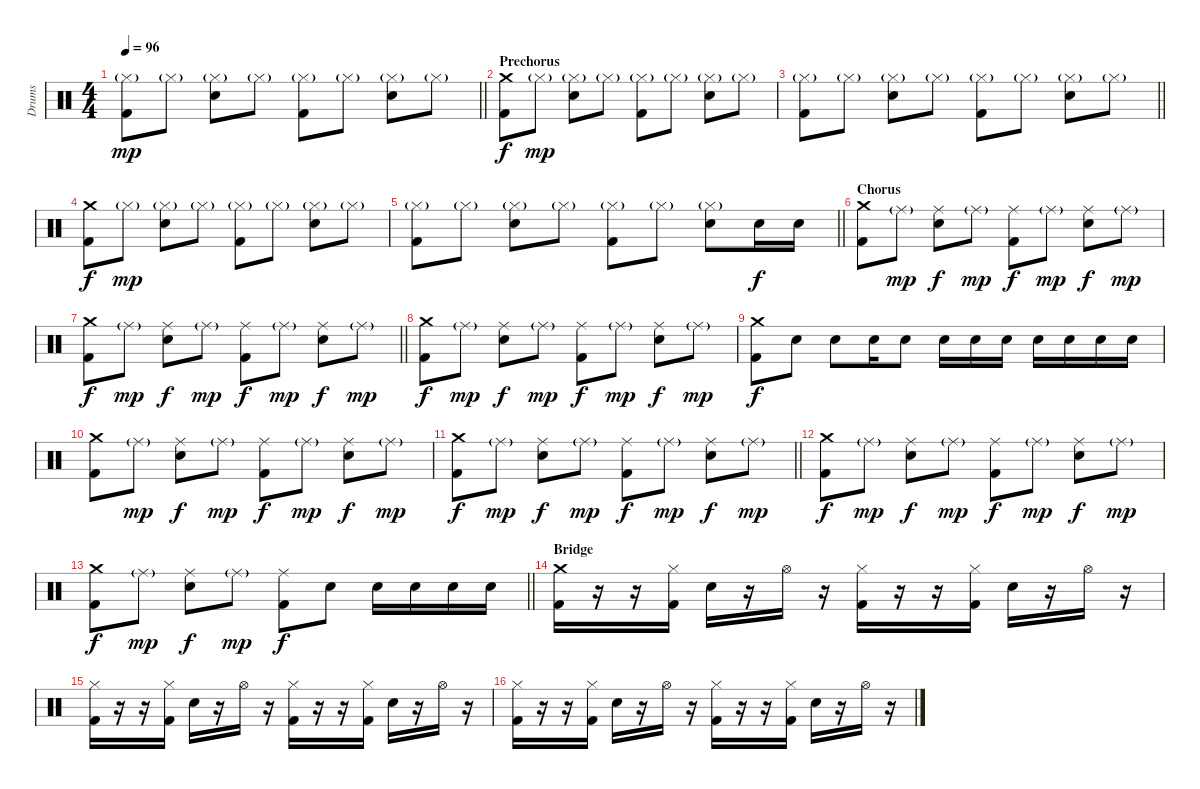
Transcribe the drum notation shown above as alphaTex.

\track ("Drums" "Drums") {instrument percussion}
\staff {score}
\articulation defaults
\ts (4 4)
\tempo 96
\clef neutral
\barLineRight lightlight
\ks c
("Hi-Hat (closed)"{g} "Kick (hit) 2").8{dy mp} "Hi-Hat (closed)"{g}.8 ("Hi-Hat (closed)"{g} "Snare (hit) 2").8 "Hi-Hat (closed)"{g}.8 ("Hi-Hat (closed)"{g} "Kick (hit) 2").8 "Hi-Hat (closed)"{g}.8 ("Hi-Hat (closed)"{g} "Snare (hit) 2").8 "Hi-Hat (closed)"{g}.8 |
\section ("" "Prechorus")
("Crash medium (hit)" "Kick (hit) 2").8{dy f} "Hi-Hat (closed)"{g}.8{dy mp} ("Hi-Hat (closed)"{g} "Snare (hit) 2").8 "Hi-Hat (closed)"{g}.8 ("Hi-Hat (closed)"{g} "Kick (hit) 2").8 "Hi-Hat (closed)"{g}.8 ("Hi-Hat (closed)"{g} "Snare (hit) 2").8 "Hi-Hat (closed)"{g}.8 |
\barLineRight lightlight
("Hi-Hat (closed)"{g} "Kick (hit) 2").8 "Hi-Hat (closed)"{g}.8 ("Hi-Hat (closed)"{g} "Snare (hit) 2").8 "Hi-Hat (closed)"{g}.8 ("Hi-Hat (closed)"{g} "Kick (hit) 2").8 "Hi-Hat (closed)"{g}.8 ("Hi-Hat (closed)"{g} "Snare (hit) 2").8 "Hi-Hat (closed)"{g}.8 |
("Crash medium (hit)" "Kick (hit) 2").8{dy f} "Hi-Hat (closed)"{g}.8{dy mp} ("Hi-Hat (closed)"{g} "Snare (hit) 2").8 "Hi-Hat (closed)"{g}.8 ("Hi-Hat (closed)"{g} "Kick (hit) 2").8 "Hi-Hat (closed)"{g}.8 ("Hi-Hat (closed)"{g} "Snare (hit) 2").8 "Hi-Hat (closed)"{g}.8 |
\barLineRight lightlight
("Hi-Hat (closed)"{g} "Kick (hit) 2").8 "Hi-Hat (closed)"{g}.8 ("Hi-Hat (closed)"{g} "Snare (hit) 2").8 "Hi-Hat (closed)"{g}.8 ("Hi-Hat (closed)"{g} "Kick (hit) 2").8 "Hi-Hat (closed)"{g}.8 ("Hi-Hat (closed)"{g} "Snare (hit) 2").8 "Snare (hit) 2".16{dy f} "Snare (hit) 2".16 |
\section ("" "Chorus")
("Crash medium (hit)" "Kick (hit) 2").8 "Ride (middle)"{g}.8{dy mp} ("Ride (middle)" "Snare (hit) 2").8{dy f} "Ride (middle)"{g}.8{dy mp} ("Ride (middle)" "Kick (hit) 2").8{dy f} "Ride (middle)"{g}.8{dy mp} ("Ride (middle)" "Snare (hit) 2").8{dy f} "Ride (middle)"{g}.8{dy mp} |
\barLineRight lightlight
("Crash medium (hit)" "Kick (hit) 2").8{dy f} "Ride (middle)"{g}.8{dy mp} ("Ride (middle)" "Snare (hit) 2").8{dy f} "Ride (middle)"{g}.8{dy mp} ("Ride (middle)" "Kick (hit) 2").8{dy f} "Ride (middle)"{g}.8{dy mp} ("Ride (middle)" "Snare (hit) 2").8{dy f} "Ride (middle)"{g}.8{dy mp} |
("Crash medium (hit)" "Kick (hit) 2").8{dy f} "Ride (middle)"{g}.8{dy mp} ("Ride (middle)" "Snare (hit) 2").8{dy f} "Ride (middle)"{g}.8{dy mp} ("Ride (middle)" "Kick (hit) 2").8{dy f} "Ride (middle)"{g}.8{dy mp} ("Ride (middle)" "Snare (hit) 2").8{dy f} "Ride (middle)"{g}.8{dy mp} |
("Crash medium (hit)" "Kick (hit) 2").8{dy f} "Snare (hit) 2".8 "Snare (hit) 2".8 "Snare (hit) 2".16 "Snare (hit) 2".8 "Snare (hit) 2".16 "Snare (hit) 2".16 "Snare (hit) 2".16 "Snare (hit) 2".16 "Snare (hit) 2".16 "Snare (hit) 2".16 "Snare (hit) 2".16 |
("Crash medium (hit)" "Kick (hit) 2").8 "Ride (middle)"{g}.8{dy mp} ("Ride (middle)" "Snare (hit) 2").8{dy f} "Ride (middle)"{g}.8{dy mp} ("Ride (middle)" "Kick (hit) 2").8{dy f} "Ride (middle)"{g}.8{dy mp} ("Ride (middle)" "Snare (hit) 2").8{dy f} "Ride (middle)"{g}.8{dy mp} |
\barLineRight lightlight
("Crash medium (hit)" "Kick (hit) 2").8{dy f} "Ride (middle)"{g}.8{dy mp} ("Ride (middle)" "Snare (hit) 2").8{dy f} "Ride (middle)"{g}.8{dy mp} ("Ride (middle)" "Kick (hit) 2").8{dy f} "Ride (middle)"{g}.8{dy mp} ("Ride (middle)" "Snare (hit) 2").8{dy f} "Ride (middle)"{g}.8{dy mp} |
("Crash medium (hit)" "Kick (hit) 2").8{dy f} "Ride (middle)"{g}.8{dy mp} ("Ride (middle)" "Snare (hit) 2").8{dy f} "Ride (middle)"{g}.8{dy mp} ("Ride (middle)" "Kick (hit) 2").8{dy f} "Ride (middle)"{g}.8{dy mp} ("Ride (middle)" "Snare (hit) 2").8{dy f} "Ride (middle)"{g}.8{dy mp} |
\barLineRight lightlight
("Crash medium (hit)" "Kick (hit) 2").8{dy f} "Ride (middle)"{g}.8{dy mp} ("Ride (middle)" "Snare (hit) 2").8{dy f} "Ride (middle)"{g}.8{dy mp} ("Ride (middle)" "Kick (hit) 2").8{dy f} "Snare (hit) 2".8 "Snare (hit) 2".16 "Snare (hit) 2".16 "Snare (hit) 2".16 "Snare (hit) 2".16 |
\section ("" "Bridge")
("Crash medium (hit)" "Kick (hit) 2").16 r.16 r.16 ("Hi-Hat (closed)" "Kick (hit) 2").16 "Snare (hit) 2".16 r.16 "Hi-Hat (open)".16 r.16 ("Hi-Hat (closed)" "Kick (hit) 2").16 r.16 r.16 ("Hi-Hat (closed)" "Kick (hit) 2").16 "Snare (hit) 2".16 r.16 "Hi-Hat (open)".16 r.16 |
("Hi-Hat (closed)" "Kick (hit) 2").16 r.16 r.16 ("Hi-Hat (closed)" "Kick (hit) 2").16 "Snare (hit) 2".16 r.16 "Hi-Hat (open)".16 r.16 ("Hi-Hat (closed)" "Kick (hit) 2").16 r.16 r.16 ("Hi-Hat (closed)" "Kick (hit) 2").16 "Snare (hit) 2".16 r.16 "Hi-Hat (open)".16 r.16 |
("Hi-Hat (closed)" "Kick (hit) 2").16 r.16 r.16 ("Hi-Hat (closed)" "Kick (hit) 2").16 "Snare (hit) 2".16 r.16 "Hi-Hat (open)".16 r.16 ("Hi-Hat (closed)" "Kick (hit) 2").16 r.16 r.16 ("Hi-Hat (closed)" "Kick (hit) 2").16 "Snare (hit) 2".16 r.16 "Hi-Hat (open)".16 r.16
